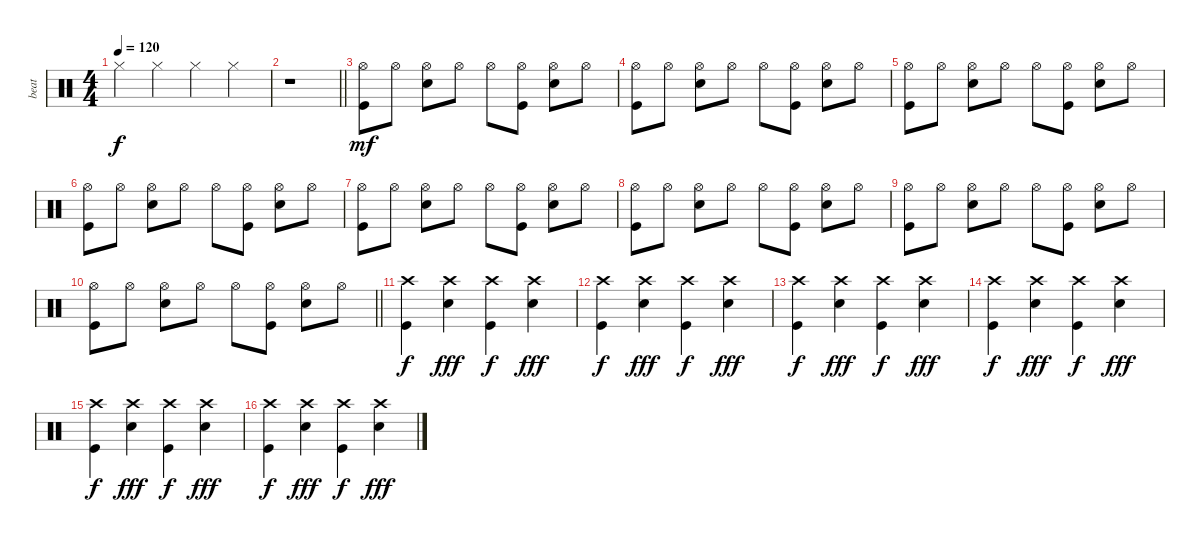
\track ("beat" "beat") {instrument percussion}
\staff {score}
\articulation defaults
\ts (4 4)
\tempo 120
\clef neutral
\ks c "Hi-Hat (closed)".4{dy f} "Hi-Hat (closed)".4 "Hi-Hat (closed)".4 "Hi-Hat (closed)".4
|
\barLineRight lightlight
r.1 |
("Kick (hit)" "Hi-Hat (open)").8{dy mf} "Hi-Hat (open)".8 ("Snare (hit) 2" "Hi-Hat (open)").8 "Hi-Hat (open)".8 "Hi-Hat (open)".8 ("Kick (hit)" "Hi-Hat (open)").8 ("Snare (hit) 2" "Hi-Hat (open)").8 "Hi-Hat (open)".8 |
("Kick (hit)" "Hi-Hat (open)").8 "Hi-Hat (open)".8 ("Snare (hit) 2" "Hi-Hat (open)").8 "Hi-Hat (open)".8 "Hi-Hat (open)".8 ("Kick (hit)" "Hi-Hat (open)").8 ("Snare (hit) 2" "Hi-Hat (open)").8 "Hi-Hat (open)".8 |
("Kick (hit)" "Hi-Hat (open)").8 "Hi-Hat (open)".8 ("Snare (hit) 2" "Hi-Hat (open)").8 "Hi-Hat (open)".8 "Hi-Hat (open)".8 ("Kick (hit)" "Hi-Hat (open)").8 ("Snare (hit) 2" "Hi-Hat (open)").8 "Hi-Hat (open)".8 |
("Kick (hit)" "Hi-Hat (open)").8 "Hi-Hat (open)".8 ("Snare (hit) 2" "Hi-Hat (open)").8 "Hi-Hat (open)".8 "Hi-Hat (open)".8 ("Kick (hit)" "Hi-Hat (open)").8 ("Snare (hit) 2" "Hi-Hat (open)").8 "Hi-Hat (open)".8 |
("Kick (hit)" "Hi-Hat (open)").8 "Hi-Hat (open)".8 ("Snare (hit) 2" "Hi-Hat (open)").8 "Hi-Hat (open)".8 "Hi-Hat (open)".8 ("Kick (hit)" "Hi-Hat (open)").8 ("Snare (hit) 2" "Hi-Hat (open)").8 "Hi-Hat (open)".8 |
("Kick (hit)" "Hi-Hat (open)").8 "Hi-Hat (open)".8 ("Snare (hit) 2" "Hi-Hat (open)").8 "Hi-Hat (open)".8 "Hi-Hat (open)".8 ("Kick (hit)" "Hi-Hat (open)").8 ("Snare (hit) 2" "Hi-Hat (open)").8 "Hi-Hat (open)".8 |
("Kick (hit)" "Hi-Hat (open)").8 "Hi-Hat (open)".8 ("Snare (hit) 2" "Hi-Hat (open)").8 "Hi-Hat (open)".8 "Hi-Hat (open)".8 ("Kick (hit)" "Hi-Hat (open)").8 ("Snare (hit) 2" "Hi-Hat (open)").8 "Hi-Hat (open)".8 |
\barLineRight lightlight
("Kick (hit)" "Hi-Hat (open)").8 "Hi-Hat (open)".8 ("Snare (hit) 2" "Hi-Hat (open)").8 "Hi-Hat (open)".8 "Hi-Hat (open)".8 ("Kick (hit)" "Hi-Hat (open)").8 ("Snare (hit) 2" "Hi-Hat (open)").8 "Hi-Hat (open)".8 |
("Kick (hit)" "Crash high (hit)").4{dy f} ("Snare (hit) 2" "Crash high (hit)").4{dy fff} ("Kick (hit)" "Crash high (hit)").4{dy f} ("Snare (hit) 2" "Crash high (hit)").4{dy fff} |
("Kick (hit)" "Crash high (hit)").4{dy f} ("Snare (hit) 2" "Crash high (hit)").4{dy fff} ("Kick (hit)" "Crash high (hit)").4{dy f} ("Snare (hit) 2" "Crash high (hit)").4{dy fff} |
("Kick (hit)" "Crash high (hit)").4{dy f} ("Snare (hit) 2" "Crash high (hit)").4{dy fff} ("Kick (hit)" "Crash high (hit)").4{dy f} ("Snare (hit) 2" "Crash high (hit)").4{dy fff} |
("Kick (hit)" "Crash high (hit)").4{dy f} ("Snare (hit) 2" "Crash high (hit)").4{dy fff} ("Kick (hit)" "Crash high (hit)").4{dy f} ("Snare (hit) 2" "Crash high (hit)").4{dy fff} |
("Kick (hit)" "Crash high (hit)").4{dy f} ("Snare (hit) 2" "Crash high (hit)").4{dy fff} ("Kick (hit)" "Crash high (hit)").4{dy f} ("Snare (hit) 2" "Crash high (hit)").4{dy fff} |
("Kick (hit)" "Crash high (hit)").4{dy f} ("Snare (hit) 2" "Crash high (hit)").4{dy fff} ("Kick (hit)" "Crash high (hit)").4{dy f} ("Snare (hit) 2" "Crash high (hit)").4{dy fff}
